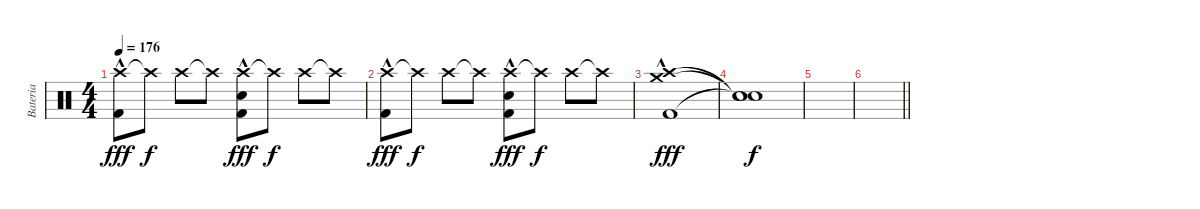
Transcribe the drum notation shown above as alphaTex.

\track ("Bateria" "Bateria") {instrument percussion}
\staff {score}
\articulation defaults
\ts (4 4)
\tempo 176
\clef neutral
\ks c
("Crash high (hit)" "Kick (hit) 2"{hac}).8{dy fff} "Crash high (hit)"{t}.8{dy f} "Crash high (hit)".8 "Crash high (hit)"{t}.8 ("Crash high (hit)" "Electric Snare (hit)"{hac} "Kick (hit) 2"{hac}).8{dy fff} "Crash high (hit)"{t}.8{dy f} "Crash high (hit)".8 "Crash high (hit)"{t}.8 |
("Crash high (hit)" "Kick (hit) 2"{hac}).8{dy fff} "Crash high (hit)"{t}.8{dy f} "Crash high (hit)".8 "Crash high (hit)"{t}.8 ("Crash high (hit)" "Electric Snare (hit)"{hac} "Kick (hit) 2"{hac}).8{dy fff} "Crash high (hit)"{t}.8{dy f} "Crash high (hit)".8 "Crash high (hit)"{t}.8 |
("Crash high (hit)"{hac} "Crash medium (hit)"{hac} "Kick (hit) 2"{hac}).1{dy fff} |
("Snare (hit)"{t} "Snare (hit)"{t} "Snare (hit)"{t}).1{dy f} |
|
\barLineRight lightlight
